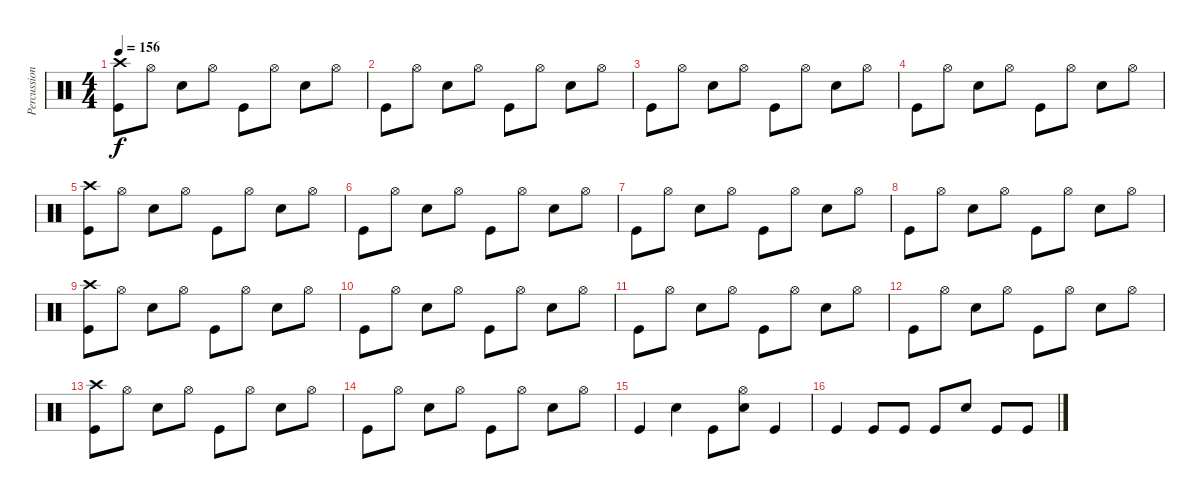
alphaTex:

\track ("Percussion" "Percussion") {instrument percussion}
\staff {score}
\articulation defaults
\ts (4 4)
\tempo 156
\clef neutral
\ks c
("Crash high (hit)" "Kick (hit)").8{dy f} "Hi-Hat (open)".8 "Electric Snare (hit)".8 "Hi-Hat (open)".8 "Kick (hit)".8 "Hi-Hat (open)".8 "Electric Snare (hit)".8 "Hi-Hat (open)".8 |
"Kick (hit)".8 "Hi-Hat (open)".8 "Electric Snare (hit)".8 "Hi-Hat (open)".8 "Kick (hit)".8 "Hi-Hat (open)".8 "Electric Snare (hit)".8 "Hi-Hat (open)".8 |
"Kick (hit)".8 "Hi-Hat (open)".8 "Electric Snare (hit)".8 "Hi-Hat (open)".8 "Kick (hit)".8 "Hi-Hat (open)".8 "Electric Snare (hit)".8 "Hi-Hat (open)".8 |
"Kick (hit)".8 "Hi-Hat (open)".8 "Electric Snare (hit)".8 "Hi-Hat (open)".8 "Kick (hit)".8 "Hi-Hat (open)".8 "Electric Snare (hit)".8 "Hi-Hat (open)".8 |
("Crash high (hit)" "Kick (hit)").8 "Hi-Hat (open)".8 "Electric Snare (hit)".8 "Hi-Hat (open)".8 "Kick (hit)".8 "Hi-Hat (open)".8 "Electric Snare (hit)".8 "Hi-Hat (open)".8 |
"Kick (hit)".8 "Hi-Hat (open)".8 "Electric Snare (hit)".8 "Hi-Hat (open)".8 "Kick (hit)".8 "Hi-Hat (open)".8 "Electric Snare (hit)".8 "Hi-Hat (open)".8 |
"Kick (hit)".8 "Hi-Hat (open)".8 "Electric Snare (hit)".8 "Hi-Hat (open)".8 "Kick (hit)".8 "Hi-Hat (open)".8 "Electric Snare (hit)".8 "Hi-Hat (open)".8 |
"Kick (hit)".8 "Hi-Hat (open)".8 "Electric Snare (hit)".8 "Hi-Hat (open)".8 "Kick (hit)".8 "Hi-Hat (open)".8 "Electric Snare (hit)".8 "Hi-Hat (open)".8 |
("Crash high (hit)" "Kick (hit)").8 "Hi-Hat (open)".8 "Electric Snare (hit)".8 "Hi-Hat (open)".8 "Kick (hit)".8 "Hi-Hat (open)".8 "Electric Snare (hit)".8 "Hi-Hat (open)".8 |
"Kick (hit)".8 "Hi-Hat (open)".8 "Electric Snare (hit)".8 "Hi-Hat (open)".8 "Kick (hit)".8 "Hi-Hat (open)".8 "Electric Snare (hit)".8 "Hi-Hat (open)".8 |
"Kick (hit)".8 "Hi-Hat (open)".8 "Electric Snare (hit)".8 "Hi-Hat (open)".8 "Kick (hit)".8 "Hi-Hat (open)".8 "Electric Snare (hit)".8 "Hi-Hat (open)".8 |
"Kick (hit)".8 "Hi-Hat (open)".8 "Electric Snare (hit)".8 "Hi-Hat (open)".8 "Kick (hit)".8 "Hi-Hat (open)".8 "Electric Snare (hit)".8 "Hi-Hat (open)".8 |
("Crash high (hit)" "Kick (hit)").8 "Hi-Hat (open)".8 "Electric Snare (hit)".8 "Hi-Hat (open)".8 "Kick (hit)".8 "Hi-Hat (open)".8 "Electric Snare (hit)".8 "Hi-Hat (open)".8 |
"Kick (hit)".8 "Hi-Hat (open)".8 "Electric Snare (hit)".8 "Hi-Hat (open)".8 "Kick (hit)".8 "Hi-Hat (open)".8 "Electric Snare (hit)".8 "Hi-Hat (open)".8 |
"Kick (hit)".4 "Electric Snare (hit)".4 "Kick (hit)".8 ("Hi-Hat (open)" "Electric Snare (hit)").8 "Kick (hit)".4 |
"Kick (hit)".4 "Kick (hit)".8 "Kick (hit)".8 "Kick (hit)".8 "Electric Snare (hit)".8 "Kick (hit)".8 "Kick (hit)".8
